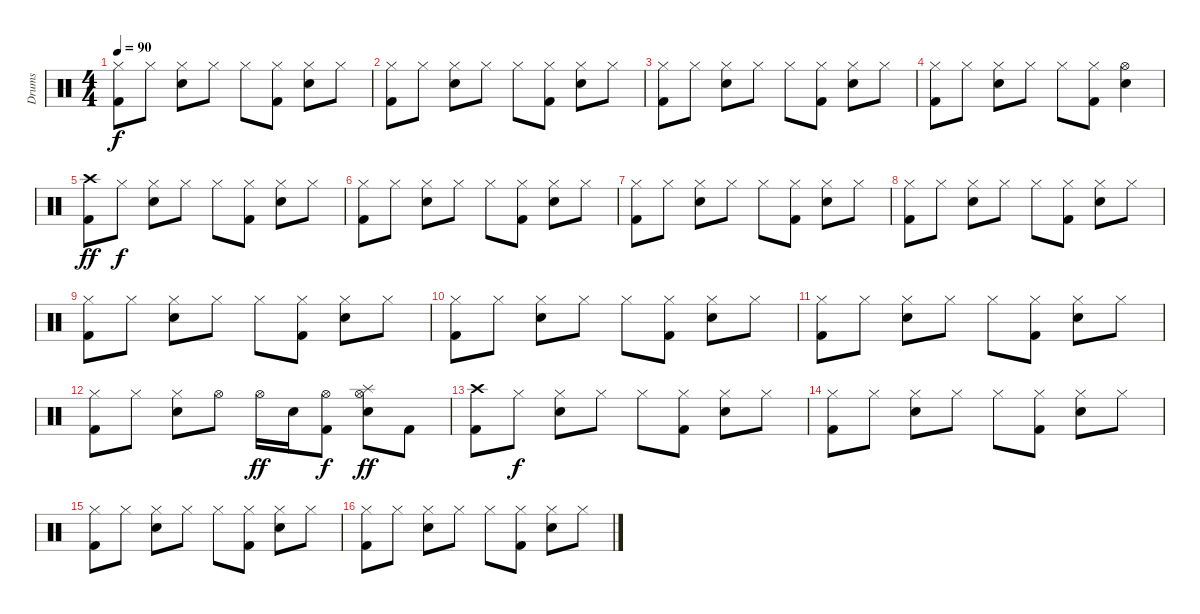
\track ("Drums" "Drums") {instrument percussion}
\staff {score}
\articulation defaults
\ts (4 4)
\tempo 90
\clef neutral
\ks c
("Kick (hit) 2" "Hi-Hat (closed)").8{dy f} "Hi-Hat (closed)".8 ("Electric Snare (hit)" "Hi-Hat (closed)").8 "Hi-Hat (closed)".8 "Hi-Hat (closed)".8 ("Kick (hit) 2" "Hi-Hat (closed)").8 ("Electric Snare (hit)" "Hi-Hat (closed)").8 "Hi-Hat (closed)".8 |
("Kick (hit) 2" "Hi-Hat (closed)").8 "Hi-Hat (closed)".8 ("Electric Snare (hit)" "Hi-Hat (closed)").8 "Hi-Hat (closed)".8 "Hi-Hat (closed)".8 ("Kick (hit) 2" "Hi-Hat (closed)").8 ("Electric Snare (hit)" "Hi-Hat (closed)").8 "Hi-Hat (closed)".8 |
("Kick (hit) 2" "Hi-Hat (closed)").8 "Hi-Hat (closed)".8 ("Electric Snare (hit)" "Hi-Hat (closed)").8 "Hi-Hat (closed)".8 "Hi-Hat (closed)".8 ("Kick (hit) 2" "Hi-Hat (closed)").8 ("Electric Snare (hit)" "Hi-Hat (closed)").8 "Hi-Hat (closed)".8 |
("Kick (hit) 2" "Hi-Hat (closed)").8 "Hi-Hat (closed)".8 ("Electric Snare (hit)" "Hi-Hat (closed)").8 "Hi-Hat (closed)".8 "Hi-Hat (closed)".8 ("Kick (hit) 2" "Hi-Hat (closed)").8 ("Electric Snare (hit)" "Hi-Hat (open)").4{txt ""} |
("Kick (hit) 2" "Crash high (hit)").8{dy ff} "Hi-Hat (closed)".8{dy f} ("Electric Snare (hit)" "Hi-Hat (closed)").8 "Hi-Hat (closed)".8 "Hi-Hat (closed)".8 ("Kick (hit) 2" "Hi-Hat (closed)").8 ("Electric Snare (hit)" "Hi-Hat (closed)").8 "Hi-Hat (closed)".8 |
("Kick (hit) 2" "Hi-Hat (closed)").8 "Hi-Hat (closed)".8 ("Electric Snare (hit)" "Hi-Hat (closed)").8 "Hi-Hat (closed)".8 "Hi-Hat (closed)".8 ("Kick (hit) 2" "Hi-Hat (closed)").8 ("Electric Snare (hit)" "Hi-Hat (closed)").8 "Hi-Hat (closed)".8 |
("Kick (hit) 2" "Hi-Hat (closed)").8 "Hi-Hat (closed)".8 ("Electric Snare (hit)" "Hi-Hat (closed)").8 "Hi-Hat (closed)".8 "Hi-Hat (closed)".8 ("Kick (hit) 2" "Hi-Hat (closed)").8 ("Electric Snare (hit)" "Hi-Hat (closed)").8 "Hi-Hat (closed)".8 |
("Kick (hit) 2" "Hi-Hat (closed)").8 "Hi-Hat (closed)".8 ("Electric Snare (hit)" "Hi-Hat (closed)").8 "Hi-Hat (closed)".8 "Hi-Hat (closed)".8 ("Kick (hit) 2" "Hi-Hat (closed)").8 ("Electric Snare (hit)" "Hi-Hat (closed)").8 "Hi-Hat (closed)".8 |
("Kick (hit) 2" "Hi-Hat (closed)").8 "Hi-Hat (closed)".8 ("Electric Snare (hit)" "Hi-Hat (closed)").8 "Hi-Hat (closed)".8 "Hi-Hat (closed)".8 ("Kick (hit) 2" "Hi-Hat (closed)").8 ("Electric Snare (hit)" "Hi-Hat (closed)").8 "Hi-Hat (closed)".8 |
("Kick (hit) 2" "Hi-Hat (closed)").8 "Hi-Hat (closed)".8 ("Electric Snare (hit)" "Hi-Hat (closed)").8 "Hi-Hat (closed)".8 "Hi-Hat (closed)".8 ("Kick (hit) 2" "Hi-Hat (closed)").8 ("Electric Snare (hit)" "Hi-Hat (closed)").8 "Hi-Hat (closed)".8 |
("Kick (hit) 2" "Hi-Hat (closed)").8 "Hi-Hat (closed)".8 ("Electric Snare (hit)" "Hi-Hat (closed)").8 "Hi-Hat (closed)".8 "Hi-Hat (closed)".8 ("Kick (hit) 2" "Hi-Hat (closed)").8 ("Electric Snare (hit)" "Hi-Hat (closed)").8 "Hi-Hat (closed)".8 |
("Kick (hit) 2" "Hi-Hat (closed)").8 "Hi-Hat (closed)".8 ("Electric Snare (hit)" "Hi-Hat (closed)").8 "Hi-Hat (open)".8 "Hi-Hat (open)".16{dy ff} "Electric Snare (hit)".16 ("Kick (hit) 2" "Hi-Hat (open)").8{dy f} ("Electric Snare (hit)" "Hi-Hat (open)" "Splash (hit)").8{dy ff} "Kick (hit) 2".8 |
("Kick (hit) 2" "Crash high (hit)").8 "Hi-Hat (closed)".8{dy f} ("Electric Snare (hit)" "Hi-Hat (closed)").8 "Hi-Hat (closed)".8 "Hi-Hat (closed)".8 ("Kick (hit) 2" "Hi-Hat (closed)").8 ("Electric Snare (hit)" "Hi-Hat (closed)").8 "Hi-Hat (closed)".8 |
("Kick (hit) 2" "Hi-Hat (closed)").8 "Hi-Hat (closed)".8 ("Electric Snare (hit)" "Hi-Hat (closed)").8 "Hi-Hat (closed)".8 "Hi-Hat (closed)".8 ("Kick (hit) 2" "Hi-Hat (closed)").8 ("Electric Snare (hit)" "Hi-Hat (closed)").8 "Hi-Hat (closed)".8 |
("Kick (hit) 2" "Hi-Hat (closed)").8 "Hi-Hat (closed)".8 ("Electric Snare (hit)" "Hi-Hat (closed)").8 "Hi-Hat (closed)".8 "Hi-Hat (closed)".8 ("Kick (hit) 2" "Hi-Hat (closed)").8 ("Electric Snare (hit)" "Hi-Hat (closed)").8 "Hi-Hat (closed)".8 |
("Kick (hit) 2" "Hi-Hat (closed)").8 "Hi-Hat (closed)".8 ("Electric Snare (hit)" "Hi-Hat (closed)").8 "Hi-Hat (closed)".8 "Hi-Hat (closed)".8 ("Kick (hit) 2" "Hi-Hat (closed)").8 ("Electric Snare (hit)" "Hi-Hat (closed)").8 "Hi-Hat (closed)".8
